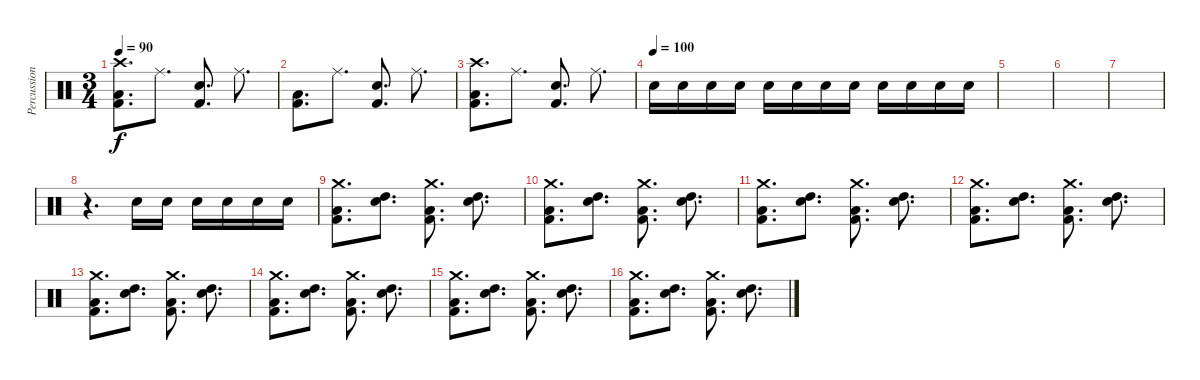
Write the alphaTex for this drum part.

\track ("Percussion" "Percussion") {instrument percussion}
\staff {score}
\articulation defaults
\ts (3 4)
\tempo 90
\clef neutral
\ks c
("Crash high (hit)" "Low Floor Tom (hit)" "Kick (hit) 2").8{d dy f} "Ride (middle)".8{d} ("Snare (hit) 2" "Kick (hit) 2").8{d} "Ride (middle)".8{d} |
("Low Floor Tom (hit)" "Kick (hit) 2").8{d} "Ride (middle)".8{d} ("Snare (hit) 2" "Kick (hit) 2").8{d} "Ride (middle)".8{d} |
("Crash high (hit)" "Low Floor Tom (hit)" "Kick (hit) 2").8{d} "Ride (middle)".8{d} ("Snare (hit) 2" "Kick (hit) 2").8{d} "Ride (middle)".8{d} |
\tempo (100)
"Snare (hit) 2".16 "Snare (hit) 2".16 "Snare (hit) 2".16 "Snare (hit) 2".16 "Snare (hit) 2".16 "Snare (hit) 2".16 "Snare (hit) 2".16 "Snare (hit) 2".16 "Snare (hit) 2".16 "Snare (hit) 2".16 "Snare (hit) 2".16 "Snare (hit) 2".16 |
|
|
|
r.4{d} "Snare (hit) 2".16 "Snare (hit) 2".16 "Snare (hit) 2".16 "Snare (hit) 2".16 "Snare (hit) 2".16 "Snare (hit) 2".16 |
("Crash medium (hit)" "Low Floor Tom (hit)" "Kick (hit) 2").8{d} ("Snare (hit) 2" "High Tom (hit)").8{d} ("Crash medium (hit)" "Low Floor Tom (hit)" "Kick (hit) 2").8{d} ("Snare (hit) 2" "High Tom (hit)").8{d} |
("Crash medium (hit)" "Low Floor Tom (hit)" "Kick (hit) 2").8{d} ("Snare (hit) 2" "High Tom (hit)").8{d} ("Crash medium (hit)" "Low Floor Tom (hit)" "Kick (hit) 2").8{d} ("Snare (hit) 2" "High Tom (hit)").8{d} |
("Crash medium (hit)" "Low Floor Tom (hit)" "Kick (hit) 2").8{d} ("Snare (hit) 2" "High Tom (hit)").8{d} ("Crash medium (hit)" "Low Floor Tom (hit)" "Kick (hit) 2").8{d} ("Snare (hit) 2" "High Tom (hit)").8{d} |
("Crash medium (hit)" "Low Floor Tom (hit)" "Kick (hit) 2").8{d} ("Snare (hit) 2" "High Tom (hit)").8{d} ("Crash medium (hit)" "Low Floor Tom (hit)" "Kick (hit) 2").8{d} ("Snare (hit) 2" "High Tom (hit)").8{d} |
("Crash medium (hit)" "Low Floor Tom (hit)" "Kick (hit) 2").8{d} ("Snare (hit) 2" "High Tom (hit)").8{d} ("Crash medium (hit)" "Low Floor Tom (hit)" "Kick (hit) 2").8{d} ("Snare (hit) 2" "High Tom (hit)").8{d} |
("Crash medium (hit)" "Low Floor Tom (hit)" "Kick (hit) 2").8{d} ("Snare (hit) 2" "High Tom (hit)").8{d} ("Crash medium (hit)" "Low Floor Tom (hit)" "Kick (hit) 2").8{d} ("Snare (hit) 2" "High Tom (hit)").8{d} |
("Crash medium (hit)" "Low Floor Tom (hit)" "Kick (hit) 2").8{d} ("Snare (hit) 2" "High Tom (hit)").8{d} ("Crash medium (hit)" "Low Floor Tom (hit)" "Kick (hit) 2").8{d} ("Snare (hit) 2" "High Tom (hit)").8{d} |
("Crash medium (hit)" "Low Floor Tom (hit)" "Kick (hit) 2").8{d} ("Snare (hit) 2" "High Tom (hit)").8{d} ("Crash medium (hit)" "Low Floor Tom (hit)" "Kick (hit) 2").8{d} ("Snare (hit) 2" "High Tom (hit)").8{d}
